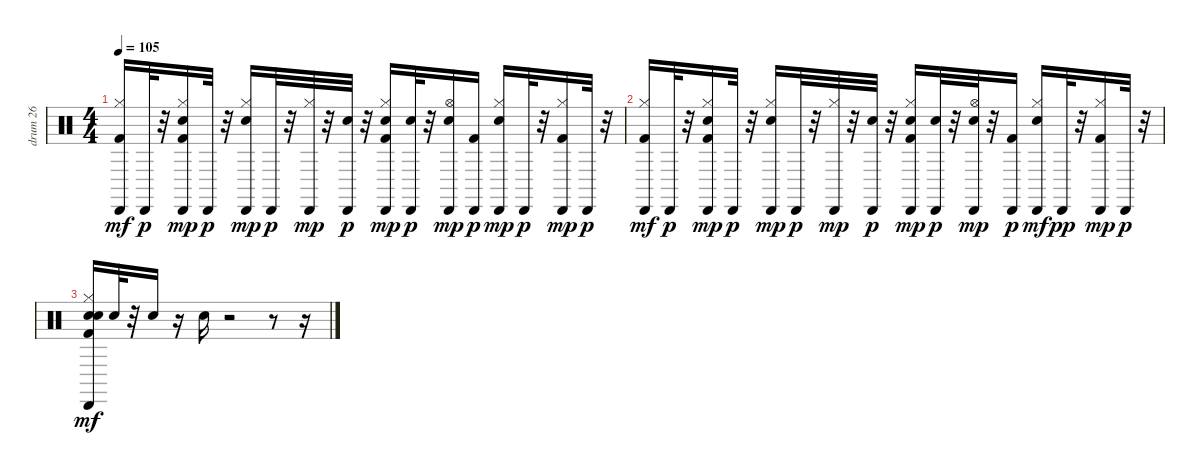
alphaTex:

\track ("drum 26" "drum 26") {instrument percussion}
\staff {score}
\articulation defaults
\ts (4 4)
\tempo 105
\clef neutral
\ks c
("Kick (hit) 2" "Hi-Hat (closed)" "Cabasa (hit)").16{dy mf} "Cabasa (hit)".32{dy p} r.32 ("Metronome (bell)" "Kick (hit) 2" "Hi-Hat (closed)" "Cabasa (hit)").16{dy mp} "Cabasa (hit)".32{dy p} r.32 ("Snare (hit) 2" "Hi-Hat (closed)" "Cabasa (hit)").16{dy mp} "Cabasa (hit)".32{dy p} r.32 ("Hi-Hat (closed)" "Cabasa (hit)").32{dy mp} r.32 ("Electric Snare (hit)" "Cabasa (hit)").32{dy p} r.32 ("Metronome (bell)" "Kick (hit) 2" "Hi-Hat (closed)" "Cabasa (hit)").16{dy mp} ("Electric Snare (hit)" "Cabasa (hit)").32{dy p} r.32 ("Electric Snare (hit)" "Hi-Hat (open)" "Cabasa (hit)").16{dy mp} ("Kick (hit) 2" "Cabasa (hit)").16{dy p} ("Snare (hit) 2" "Hi-Hat (closed)" "Cabasa (hit)").16{dy mp} "Cabasa (hit)".32{dy p} r.32 ("Kick (hit) 2" "Hi-Hat (closed)" "Cabasa (hit)").16{dy mp} "Cabasa (hit)".32{dy p} r.32 |
("Kick (hit) 2" "Hi-Hat (closed)" "Cabasa (hit)").16{dy mf} "Cabasa (hit)".32{dy p} r.32 ("Metronome (bell)" "Kick (hit) 2" "Hi-Hat (closed)" "Cabasa (hit)").16{dy mp} "Cabasa (hit)".32{dy p} r.32 ("Snare (hit) 2" "Hi-Hat (closed)" "Cabasa (hit)").16{dy mp} "Cabasa (hit)".32{dy p} r.32 ("Hi-Hat (closed)" "Cabasa (hit)").32{dy mp} r.32 ("Electric Snare (hit)" "Cabasa (hit)").32{dy p} r.32 ("Metronome (bell)" "Kick (hit) 2" "Hi-Hat (closed)" "Cabasa (hit)").16{dy mp} ("Electric Snare (hit)" "Cabasa (hit)").32{dy p} r.32 ("Electric Snare (hit)" "Hi-Hat (open)" "Cabasa (hit)").32{dy mp} r.32 ("Kick (hit) 2" "Cabasa (hit)").16{dy p} ("Snare (hit) 2" "Hi-Hat (closed)" "Cabasa (hit)").16{dy mf} "Cabasa (hit)".32{dy pp} r.32 ("Kick (hit) 2" "Hi-Hat (closed)" "Cabasa (hit)").16{dy mp} "Cabasa (hit)".32{dy p} r.32 |
("Kick (hit) 2" "Snare (hit) 2" "Electric Snare (hit)" "Hi-Hat (closed)" "Cabasa (hit)").16{dy mf} "Electric Snare (hit)".32 r.32 "Electric Snare (hit)".16 r.16 "Electric Snare (hit)".16 r.2 r.8 r.16
